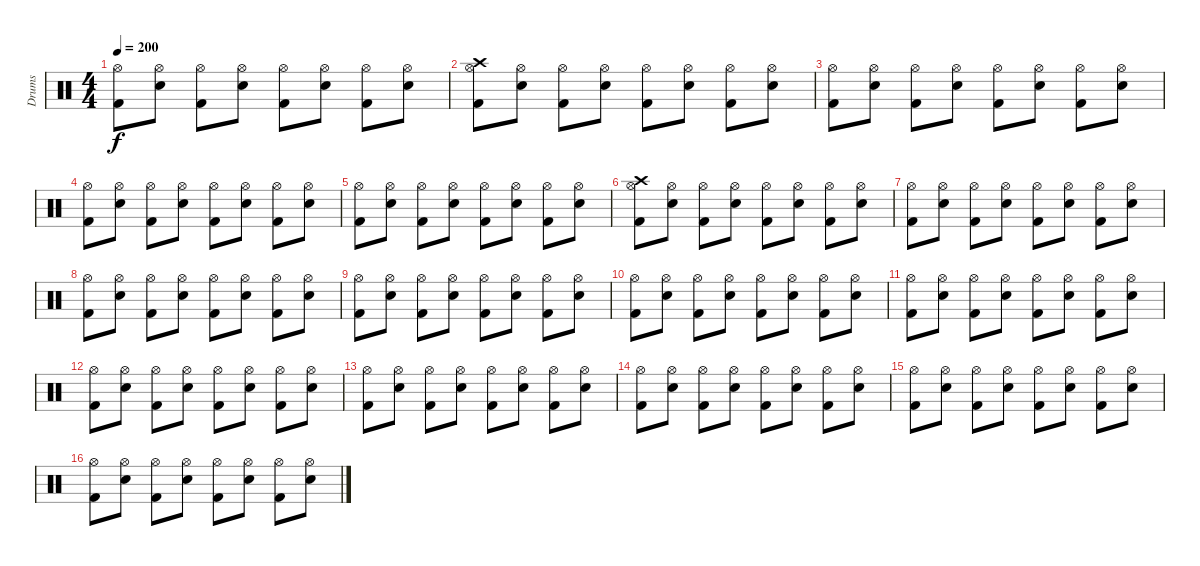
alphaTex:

\track ("Drums" "Drums") {instrument percussion}
\staff {score}
\articulation defaults
\ts (4 4)
\tempo 200
\clef neutral
\ks c
("Kick (hit) 2" "Hi-Hat (open)").8{dy f} ("Snare (hit) 2" "Hi-Hat (open)").8 ("Kick (hit) 2" "Hi-Hat (open)").8 ("Snare (hit) 2" "Hi-Hat (open)").8 ("Kick (hit) 2" "Hi-Hat (open)").8 ("Snare (hit) 2" "Hi-Hat (open)").8 ("Kick (hit) 2" "Hi-Hat (open)").8 ("Snare (hit) 2" "Hi-Hat (open)").8 |
("Kick (hit) 2" "Hi-Hat (open)" "Crash high (hit)").8 ("Snare (hit) 2" "Hi-Hat (open)").8 ("Kick (hit) 2" "Hi-Hat (open)").8 ("Snare (hit) 2" "Hi-Hat (open)").8 ("Kick (hit) 2" "Hi-Hat (open)").8 ("Snare (hit) 2" "Hi-Hat (open)").8 ("Kick (hit) 2" "Hi-Hat (open)").8 ("Snare (hit) 2" "Hi-Hat (open)").8 |
("Kick (hit) 2" "Hi-Hat (open)").8 ("Snare (hit) 2" "Hi-Hat (open)").8 ("Kick (hit) 2" "Hi-Hat (open)").8 ("Snare (hit) 2" "Hi-Hat (open)").8 ("Kick (hit) 2" "Hi-Hat (open)").8 ("Snare (hit) 2" "Hi-Hat (open)").8 ("Kick (hit) 2" "Hi-Hat (open)").8 ("Snare (hit) 2" "Hi-Hat (open)").8 |
("Kick (hit) 2" "Hi-Hat (open)").8 ("Snare (hit) 2" "Hi-Hat (open)").8 ("Kick (hit) 2" "Hi-Hat (open)").8 ("Snare (hit) 2" "Hi-Hat (open)").8 ("Kick (hit) 2" "Hi-Hat (open)").8 ("Snare (hit) 2" "Hi-Hat (open)").8 ("Kick (hit) 2" "Hi-Hat (open)").8 ("Snare (hit) 2" "Hi-Hat (open)").8 |
("Kick (hit) 2" "Hi-Hat (open)").8 ("Snare (hit) 2" "Hi-Hat (open)").8 ("Kick (hit) 2" "Hi-Hat (open)").8 ("Snare (hit) 2" "Hi-Hat (open)").8 ("Kick (hit) 2" "Hi-Hat (open)").8 ("Snare (hit) 2" "Hi-Hat (open)").8 ("Kick (hit) 2" "Hi-Hat (open)").8 ("Snare (hit) 2" "Hi-Hat (open)").8 |
("Kick (hit) 2" "Hi-Hat (open)" "Crash high (hit)").8 ("Snare (hit) 2" "Hi-Hat (open)").8 ("Kick (hit) 2" "Hi-Hat (open)").8 ("Snare (hit) 2" "Hi-Hat (open)").8 ("Kick (hit) 2" "Hi-Hat (open)").8 ("Snare (hit) 2" "Hi-Hat (open)").8 ("Kick (hit) 2" "Hi-Hat (open)").8 ("Snare (hit) 2" "Hi-Hat (open)").8 |
("Kick (hit) 2" "Hi-Hat (open)").8 ("Snare (hit) 2" "Hi-Hat (open)").8 ("Kick (hit) 2" "Hi-Hat (open)").8 ("Snare (hit) 2" "Hi-Hat (open)").8 ("Kick (hit) 2" "Hi-Hat (open)").8 ("Snare (hit) 2" "Hi-Hat (open)").8 ("Kick (hit) 2" "Hi-Hat (open)").8 ("Snare (hit) 2" "Hi-Hat (open)").8 |
("Kick (hit) 2" "Hi-Hat (open)").8 ("Snare (hit) 2" "Hi-Hat (open)").8 ("Kick (hit) 2" "Hi-Hat (open)").8 ("Snare (hit) 2" "Hi-Hat (open)").8 ("Kick (hit) 2" "Hi-Hat (open)").8 ("Snare (hit) 2" "Hi-Hat (open)").8 ("Kick (hit) 2" "Hi-Hat (open)").8 ("Snare (hit) 2" "Hi-Hat (open)").8 |
("Kick (hit) 2" "Hi-Hat (open)").8 ("Snare (hit) 2" "Hi-Hat (open)").8 ("Kick (hit) 2" "Hi-Hat (open)").8 ("Snare (hit) 2" "Hi-Hat (open)").8 ("Kick (hit) 2" "Hi-Hat (open)").8 ("Snare (hit) 2" "Hi-Hat (open)").8 ("Kick (hit) 2" "Hi-Hat (open)").8 ("Snare (hit) 2" "Hi-Hat (open)").8 |
("Kick (hit) 2" "Hi-Hat (open)").8 ("Snare (hit) 2" "Hi-Hat (open)").8 ("Kick (hit) 2" "Hi-Hat (open)").8 ("Snare (hit) 2" "Hi-Hat (open)").8 ("Kick (hit) 2" "Hi-Hat (open)").8 ("Snare (hit) 2" "Hi-Hat (open)").8 ("Kick (hit) 2" "Hi-Hat (open)").8 ("Snare (hit) 2" "Hi-Hat (open)").8 |
("Kick (hit) 2" "Hi-Hat (open)").8 ("Snare (hit) 2" "Hi-Hat (open)").8 ("Kick (hit) 2" "Hi-Hat (open)").8 ("Snare (hit) 2" "Hi-Hat (open)").8 ("Kick (hit) 2" "Hi-Hat (open)").8 ("Snare (hit) 2" "Hi-Hat (open)").8 ("Kick (hit) 2" "Hi-Hat (open)").8 ("Snare (hit) 2" "Hi-Hat (open)").8 |
("Kick (hit) 2" "Hi-Hat (open)").8 ("Snare (hit) 2" "Hi-Hat (open)").8 ("Kick (hit) 2" "Hi-Hat (open)").8 ("Snare (hit) 2" "Hi-Hat (open)").8 ("Kick (hit) 2" "Hi-Hat (open)").8 ("Snare (hit) 2" "Hi-Hat (open)").8 ("Kick (hit) 2" "Hi-Hat (open)").8 ("Snare (hit) 2" "Hi-Hat (open)").8 |
("Kick (hit) 2" "Hi-Hat (open)").8 ("Snare (hit) 2" "Hi-Hat (open)").8 ("Kick (hit) 2" "Hi-Hat (open)").8 ("Snare (hit) 2" "Hi-Hat (open)").8 ("Kick (hit) 2" "Hi-Hat (open)").8 ("Snare (hit) 2" "Hi-Hat (open)").8 ("Kick (hit) 2" "Hi-Hat (open)").8 ("Snare (hit) 2" "Hi-Hat (open)").8 |
("Kick (hit) 2" "Hi-Hat (open)").8 ("Snare (hit) 2" "Hi-Hat (open)").8 ("Kick (hit) 2" "Hi-Hat (open)").8 ("Snare (hit) 2" "Hi-Hat (open)").8 ("Kick (hit) 2" "Hi-Hat (open)").8 ("Snare (hit) 2" "Hi-Hat (open)").8 ("Kick (hit) 2" "Hi-Hat (open)").8 ("Snare (hit) 2" "Hi-Hat (open)").8 |
("Kick (hit) 2" "Hi-Hat (open)").8 ("Snare (hit) 2" "Hi-Hat (open)").8 ("Kick (hit) 2" "Hi-Hat (open)").8 ("Snare (hit) 2" "Hi-Hat (open)").8 ("Kick (hit) 2" "Hi-Hat (open)").8 ("Snare (hit) 2" "Hi-Hat (open)").8 ("Kick (hit) 2" "Hi-Hat (open)").8 ("Snare (hit) 2" "Hi-Hat (open)").8 |
("Kick (hit) 2" "Hi-Hat (open)").8 ("Snare (hit) 2" "Hi-Hat (open)").8 ("Kick (hit) 2" "Hi-Hat (open)").8 ("Snare (hit) 2" "Hi-Hat (open)").8 ("Kick (hit) 2" "Hi-Hat (open)").8 ("Snare (hit) 2" "Hi-Hat (open)").8 ("Kick (hit) 2" "Hi-Hat (open)").8 ("Snare (hit) 2" "Hi-Hat (open)").8
